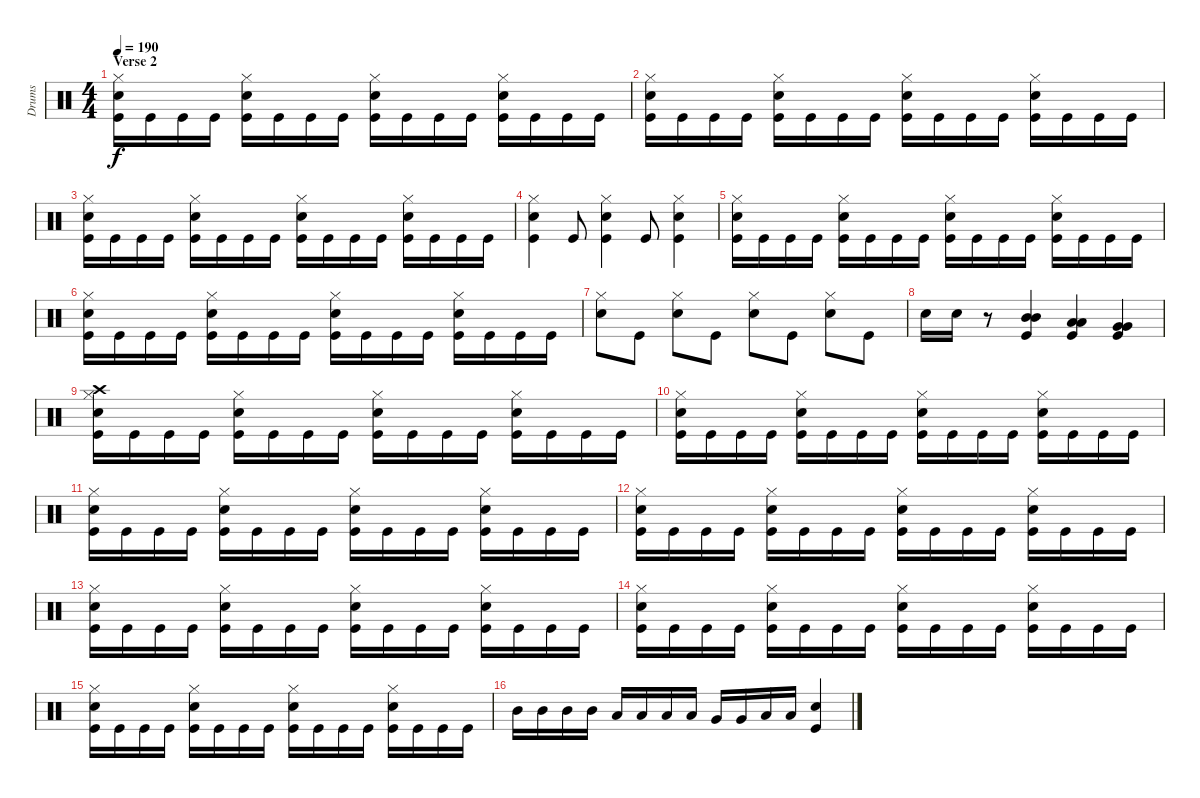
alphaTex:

\track ("Drums" "Drums") {instrument percussion}
\staff {score}
\articulation defaults
\ts (4 4)
\section ("" "Verse 2")
\tempo 190
\clef neutral
\ks c
("Hi-Hat (closed)" "Snare (hit) 2" "Kick (hit)").16{dy f} "Kick (hit)".16 "Kick (hit)".16 "Kick (hit)".16 ("Hi-Hat (closed)" "Snare (hit) 2" "Kick (hit)").16 "Kick (hit)".16 "Kick (hit)".16 "Kick (hit)".16 ("Hi-Hat (closed)" "Snare (hit) 2" "Kick (hit)").16 "Kick (hit)".16 "Kick (hit)".16 "Kick (hit)".16 ("Hi-Hat (closed)" "Snare (hit) 2" "Kick (hit)").16 "Kick (hit)".16 "Kick (hit)".16 "Kick (hit)".16 |
("Hi-Hat (closed)" "Snare (hit) 2" "Kick (hit)").16 "Kick (hit)".16 "Kick (hit)".16 "Kick (hit)".16 ("Hi-Hat (closed)" "Snare (hit) 2" "Kick (hit)").16 "Kick (hit)".16 "Kick (hit)".16 "Kick (hit)".16 ("Hi-Hat (closed)" "Snare (hit) 2" "Kick (hit)").16 "Kick (hit)".16 "Kick (hit)".16 "Kick (hit)".16 ("Hi-Hat (closed)" "Snare (hit) 2" "Kick (hit)").16 "Kick (hit)".16 "Kick (hit)".16 "Kick (hit)".16 |
("Hi-Hat (closed)" "Snare (hit) 2" "Kick (hit)").16 "Kick (hit)".16 "Kick (hit)".16 "Kick (hit)".16 ("Hi-Hat (closed)" "Snare (hit) 2" "Kick (hit)").16 "Kick (hit)".16 "Kick (hit)".16 "Kick (hit)".16 ("Hi-Hat (closed)" "Snare (hit) 2" "Kick (hit)").16 "Kick (hit)".16 "Kick (hit)".16 "Kick (hit)".16 ("Hi-Hat (closed)" "Snare (hit) 2" "Kick (hit)").16 "Kick (hit)".16 "Kick (hit)".16 "Kick (hit)".16 |
("Hi-Hat (closed)" "Snare (hit) 2" "Kick (hit)").4 "Kick (hit)".8 ("Hi-Hat (closed)" "Snare (hit) 2" "Kick (hit)").4 "Kick (hit)".8 ("Hi-Hat (closed)" "Snare (hit) 2" "Kick (hit)").4 |
("Hi-Hat (closed)" "Snare (hit) 2" "Kick (hit)").16 "Kick (hit)".16 "Kick (hit)".16 "Kick (hit)".16 ("Hi-Hat (closed)" "Snare (hit) 2" "Kick (hit)").16 "Kick (hit)".16 "Kick (hit)".16 "Kick (hit)".16 ("Hi-Hat (closed)" "Snare (hit) 2" "Kick (hit)").16 "Kick (hit)".16 "Kick (hit)".16 "Kick (hit)".16 ("Hi-Hat (closed)" "Snare (hit) 2" "Kick (hit)").16 "Kick (hit)".16 "Kick (hit)".16 "Kick (hit)".16 |
("Hi-Hat (closed)" "Snare (hit) 2" "Kick (hit)").16 "Kick (hit)".16 "Kick (hit)".16 "Kick (hit)".16 ("Hi-Hat (closed)" "Snare (hit) 2" "Kick (hit)").16 "Kick (hit)".16 "Kick (hit)".16 "Kick (hit)".16 ("Hi-Hat (closed)" "Snare (hit) 2" "Kick (hit)").16 "Kick (hit)".16 "Kick (hit)".16 "Kick (hit)".16 ("Hi-Hat (closed)" "Snare (hit) 2" "Kick (hit)").16 "Kick (hit)".16 "Kick (hit)".16 "Kick (hit)".16 |
("Hi-Hat (closed)" "Snare (hit) 2").8 "Kick (hit)".8 ("Hi-Hat (closed)" "Snare (hit) 2").8 "Kick (hit)".8 ("Hi-Hat (closed)" "Snare (hit) 2").8 "Kick (hit)".8 ("Hi-Hat (closed)" "Snare (hit) 2").8 "Kick (hit)".8 |
"Snare (hit) 2".16 "Snare (hit) 2".16 r.8 ("Mid Tom (hit)" "Mid Tom (hit)" "Kick (hit)").4 ("Low Tom (hit)" "Low Tom (hit)" "Kick (hit)").4 ("Very Low Tom (hit)" "Very Low Tom (hit)" "Kick (hit)").4 |
("Crash high (hit)" "Hi-Hat (closed)" "Snare (hit) 2" "Kick (hit)").16 "Kick (hit)".16 "Kick (hit)".16 "Kick (hit)".16 ("Hi-Hat (closed)" "Snare (hit) 2" "Kick (hit)").16 "Kick (hit)".16 "Kick (hit)".16 "Kick (hit)".16 ("Hi-Hat (closed)" "Snare (hit) 2" "Kick (hit)").16 "Kick (hit)".16 "Kick (hit)".16 "Kick (hit)".16 ("Hi-Hat (closed)" "Snare (hit) 2" "Kick (hit)").16 "Kick (hit)".16 "Kick (hit)".16 "Kick (hit)".16 |
("Hi-Hat (closed)" "Snare (hit) 2" "Kick (hit)").16 "Kick (hit)".16 "Kick (hit)".16 "Kick (hit)".16 ("Hi-Hat (closed)" "Snare (hit) 2" "Kick (hit)").16 "Kick (hit)".16 "Kick (hit)".16 "Kick (hit)".16 ("Hi-Hat (closed)" "Snare (hit) 2" "Kick (hit)").16 "Kick (hit)".16 "Kick (hit)".16 "Kick (hit)".16 ("Hi-Hat (closed)" "Snare (hit) 2" "Kick (hit)").16 "Kick (hit)".16 "Kick (hit)".16 "Kick (hit)".16 |
("Hi-Hat (closed)" "Snare (hit) 2" "Kick (hit)").16 "Kick (hit)".16 "Kick (hit)".16 "Kick (hit)".16 ("Hi-Hat (closed)" "Snare (hit) 2" "Kick (hit)").16 "Kick (hit)".16 "Kick (hit)".16 "Kick (hit)".16 ("Hi-Hat (closed)" "Snare (hit) 2" "Kick (hit)").16 "Kick (hit)".16 "Kick (hit)".16 "Kick (hit)".16 ("Hi-Hat (closed)" "Snare (hit) 2" "Kick (hit)").16 "Kick (hit)".16 "Kick (hit)".16 "Kick (hit)".16 |
("Hi-Hat (closed)" "Snare (hit) 2" "Kick (hit)").16 "Kick (hit)".16 "Kick (hit)".16 "Kick (hit)".16 ("Hi-Hat (closed)" "Snare (hit) 2" "Kick (hit)").16 "Kick (hit)".16 "Kick (hit)".16 "Kick (hit)".16 ("Hi-Hat (closed)" "Snare (hit) 2" "Kick (hit)").16 "Kick (hit)".16 "Kick (hit)".16 "Kick (hit)".16 ("Hi-Hat (closed)" "Snare (hit) 2" "Kick (hit)").16 "Kick (hit)".16 "Kick (hit)".16 "Kick (hit)".16 |
("Hi-Hat (closed)" "Snare (hit) 2" "Kick (hit)").16 "Kick (hit)".16 "Kick (hit)".16 "Kick (hit)".16 ("Hi-Hat (closed)" "Snare (hit) 2" "Kick (hit)").16 "Kick (hit)".16 "Kick (hit)".16 "Kick (hit)".16 ("Hi-Hat (closed)" "Snare (hit) 2" "Kick (hit)").16 "Kick (hit)".16 "Kick (hit)".16 "Kick (hit)".16 ("Hi-Hat (closed)" "Snare (hit) 2" "Kick (hit)").16 "Kick (hit)".16 "Kick (hit)".16 "Kick (hit)".16 |
("Hi-Hat (closed)" "Snare (hit) 2" "Kick (hit)").16 "Kick (hit)".16 "Kick (hit)".16 "Kick (hit)".16 ("Hi-Hat (closed)" "Snare (hit) 2" "Kick (hit)").16 "Kick (hit)".16 "Kick (hit)".16 "Kick (hit)".16 ("Hi-Hat (closed)" "Snare (hit) 2" "Kick (hit)").16 "Kick (hit)".16 "Kick (hit)".16 "Kick (hit)".16 ("Hi-Hat (closed)" "Snare (hit) 2" "Kick (hit)").16 "Kick (hit)".16 "Kick (hit)".16 "Kick (hit)".16 |
("Hi-Hat (closed)" "Snare (hit) 2" "Kick (hit)").16 "Kick (hit)".16 "Kick (hit)".16 "Kick (hit)".16 ("Hi-Hat (closed)" "Snare (hit) 2" "Kick (hit)").16 "Kick (hit)".16 "Kick (hit)".16 "Kick (hit)".16 ("Hi-Hat (closed)" "Snare (hit) 2" "Kick (hit)").16 "Kick (hit)".16 "Kick (hit)".16 "Kick (hit)".16 ("Hi-Hat (closed)" "Snare (hit) 2" "Kick (hit)").16 "Kick (hit)".16 "Kick (hit)".16 "Kick (hit)".16 |
"Mid Tom (hit)".16 "Mid Tom (hit)".16 "Mid Tom (hit)".16 "Mid Tom (hit)".16 "Low Tom (hit)".16 "Low Tom (hit)".16 "Low Tom (hit)".16 "Low Tom (hit)".16 "Very Low Tom (hit)".16 "Very Low Tom (hit)".16 "Low Floor Tom (hit)".16 "Low Floor Tom (hit)".16 ("Snare (hit) 2" "Kick (hit)").4
